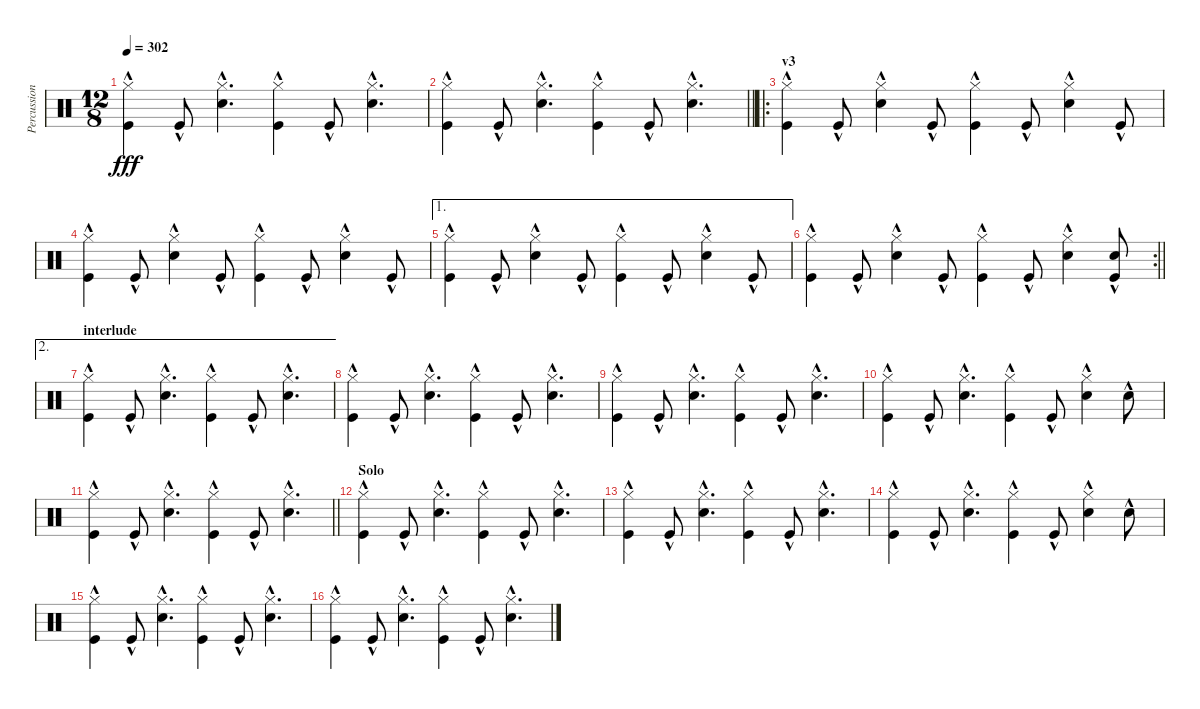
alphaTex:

\track ("Percussion" "Percussion") {instrument percussion}
\staff {score}
\articulation defaults
\ts (12 8)
\tempo 302
\clef neutral
\ks c
("Hi-Hat (closed)"{hac} "Kick (hit)"{hac}).4{dy fff} "Kick (hit)"{hac}.8 ("Hi-Hat (closed)"{hac} "Electric Snare (hit)"{hac}).4{d} ("Hi-Hat (closed)"{hac} "Kick (hit)"{hac}).4 "Kick (hit)"{hac}.8 ("Hi-Hat (closed)"{hac} "Electric Snare (hit)"{hac}).4{d} |
\barLineRight lightlight
("Hi-Hat (closed)"{hac} "Kick (hit)"{hac}).4 "Kick (hit)"{hac}.8 ("Hi-Hat (closed)"{hac} "Electric Snare (hit)"{hac}).4{d} ("Hi-Hat (closed)"{hac} "Kick (hit)"{hac}).4 "Kick (hit)"{hac}.8 ("Hi-Hat (closed)"{hac} "Electric Snare (hit)"{hac}).4{d} |
\ro
\section ("" "v3")
("Hi-Hat (closed)"{hac} "Kick (hit)"{hac}).4 "Kick (hit)"{hac}.8 ("Hi-Hat (closed)"{hac} "Electric Snare (hit)"{hac}).4 "Kick (hit)"{hac}.8 ("Hi-Hat (closed)"{hac} "Kick (hit)"{hac}).4 "Kick (hit)"{hac}.8 ("Hi-Hat (closed)"{hac} "Electric Snare (hit)"{hac}).4 "Kick (hit)"{hac}.8 |
("Hi-Hat (closed)"{hac} "Kick (hit)"{hac}).4 "Kick (hit)"{hac}.8 ("Hi-Hat (closed)"{hac} "Electric Snare (hit)"{hac}).4 "Kick (hit)"{hac}.8 ("Hi-Hat (closed)"{hac} "Kick (hit)"{hac}).4 "Kick (hit)"{hac}.8 ("Hi-Hat (closed)"{hac} "Electric Snare (hit)"{hac}).4 "Kick (hit)"{hac}.8 |
\ae 1
("Hi-Hat (closed)"{hac} "Kick (hit)"{hac}).4 "Kick (hit)"{hac}.8 ("Hi-Hat (closed)"{hac} "Electric Snare (hit)"{hac}).4 "Kick (hit)"{hac}.8 ("Hi-Hat (closed)"{hac} "Kick (hit)"{hac}).4 "Kick (hit)"{hac}.8 ("Hi-Hat (closed)"{hac} "Electric Snare (hit)"{hac}).4 "Kick (hit)"{hac}.8 |
\rc 2
\barLineRight lightlight
("Hi-Hat (closed)"{hac} "Kick (hit)"{hac}).4 "Kick (hit)"{hac}.8 ("Hi-Hat (closed)"{hac} "Electric Snare (hit)"{hac}).4 "Kick (hit)"{hac}.8 ("Hi-Hat (closed)"{hac} "Kick (hit)"{hac}).4 "Kick (hit)"{hac}.8 ("Hi-Hat (closed)"{hac} "Electric Snare (hit)"{hac}).4 ("Electric Snare (hit)"{hac} "Kick (hit)"{hac}).8 |
\ae 2
\section ("" "interlude")
("Hi-Hat (closed)"{hac} "Kick (hit)"{hac}).4 "Kick (hit)"{hac}.8 ("Hi-Hat (closed)"{hac} "Electric Snare (hit)"{hac}).4{d} ("Hi-Hat (closed)"{hac} "Kick (hit)"{hac}).4 "Kick (hit)"{hac}.8 ("Hi-Hat (closed)"{hac} "Electric Snare (hit)"{hac}).4{d} |
("Hi-Hat (closed)"{hac} "Kick (hit)"{hac}).4 "Kick (hit)"{hac}.8 ("Hi-Hat (closed)"{hac} "Electric Snare (hit)"{hac}).4{d} ("Hi-Hat (closed)"{hac} "Kick (hit)"{hac}).4 "Kick (hit)"{hac}.8 ("Hi-Hat (closed)"{hac} "Electric Snare (hit)"{hac}).4{d} |
("Hi-Hat (closed)"{hac} "Kick (hit)"{hac}).4 "Kick (hit)"{hac}.8 ("Hi-Hat (closed)"{hac} "Electric Snare (hit)"{hac}).4{d} ("Hi-Hat (closed)"{hac} "Kick (hit)"{hac}).4 "Kick (hit)"{hac}.8 ("Hi-Hat (closed)"{hac} "Electric Snare (hit)"{hac}).4{d} |
("Hi-Hat (closed)"{hac} "Kick (hit)"{hac}).4 "Kick (hit)"{hac}.8 ("Hi-Hat (closed)"{hac} "Electric Snare (hit)"{hac}).4{d} ("Hi-Hat (closed)"{hac} "Kick (hit)"{hac}).4 "Kick (hit)"{hac}.8 ("Hi-Hat (closed)"{hac} "Electric Snare (hit)"{hac}).4 "Electric Snare (hit)"{hac}.8 |
\barLineRight lightlight
("Hi-Hat (closed)"{hac} "Kick (hit)"{hac}).4 "Kick (hit)"{hac}.8 ("Hi-Hat (closed)"{hac} "Electric Snare (hit)"{hac}).4{d} ("Hi-Hat (closed)"{hac} "Kick (hit)"{hac}).4 "Kick (hit)"{hac}.8 ("Hi-Hat (closed)"{hac} "Electric Snare (hit)"{hac}).4{d} |
\section ("" "Solo")
("Hi-Hat (closed)"{hac} "Kick (hit)"{hac}).4 "Kick (hit)"{hac}.8 ("Hi-Hat (closed)"{hac} "Electric Snare (hit)"{hac}).4{d} ("Hi-Hat (closed)"{hac} "Kick (hit)"{hac}).4 "Kick (hit)"{hac}.8 ("Hi-Hat (closed)"{hac} "Electric Snare (hit)"{hac}).4{d} |
("Hi-Hat (closed)"{hac} "Kick (hit)"{hac}).4 "Kick (hit)"{hac}.8 ("Hi-Hat (closed)"{hac} "Electric Snare (hit)"{hac}).4{d} ("Hi-Hat (closed)"{hac} "Kick (hit)"{hac}).4 "Kick (hit)"{hac}.8 ("Hi-Hat (closed)"{hac} "Electric Snare (hit)"{hac}).4{d} |
("Hi-Hat (closed)"{hac} "Kick (hit)"{hac}).4 "Kick (hit)"{hac}.8 ("Hi-Hat (closed)"{hac} "Electric Snare (hit)"{hac}).4{d} ("Hi-Hat (closed)"{hac} "Kick (hit)"{hac}).4 "Kick (hit)"{hac}.8 ("Hi-Hat (closed)"{hac} "Electric Snare (hit)"{hac}).4 "Electric Snare (hit)"{hac}.8 |
("Hi-Hat (closed)"{hac} "Kick (hit)"{hac}).4 "Kick (hit)"{hac}.8 ("Hi-Hat (closed)"{hac} "Electric Snare (hit)"{hac}).4{d} ("Hi-Hat (closed)"{hac} "Kick (hit)"{hac}).4 "Kick (hit)"{hac}.8 ("Hi-Hat (closed)"{hac} "Electric Snare (hit)"{hac}).4{d} |
("Hi-Hat (closed)"{hac} "Kick (hit)"{hac}).4 "Kick (hit)"{hac}.8 ("Hi-Hat (closed)"{hac} "Electric Snare (hit)"{hac}).4{d} ("Hi-Hat (closed)"{hac} "Kick (hit)"{hac}).4 "Kick (hit)"{hac}.8 ("Hi-Hat (closed)"{hac} "Electric Snare (hit)"{hac}).4{d}
